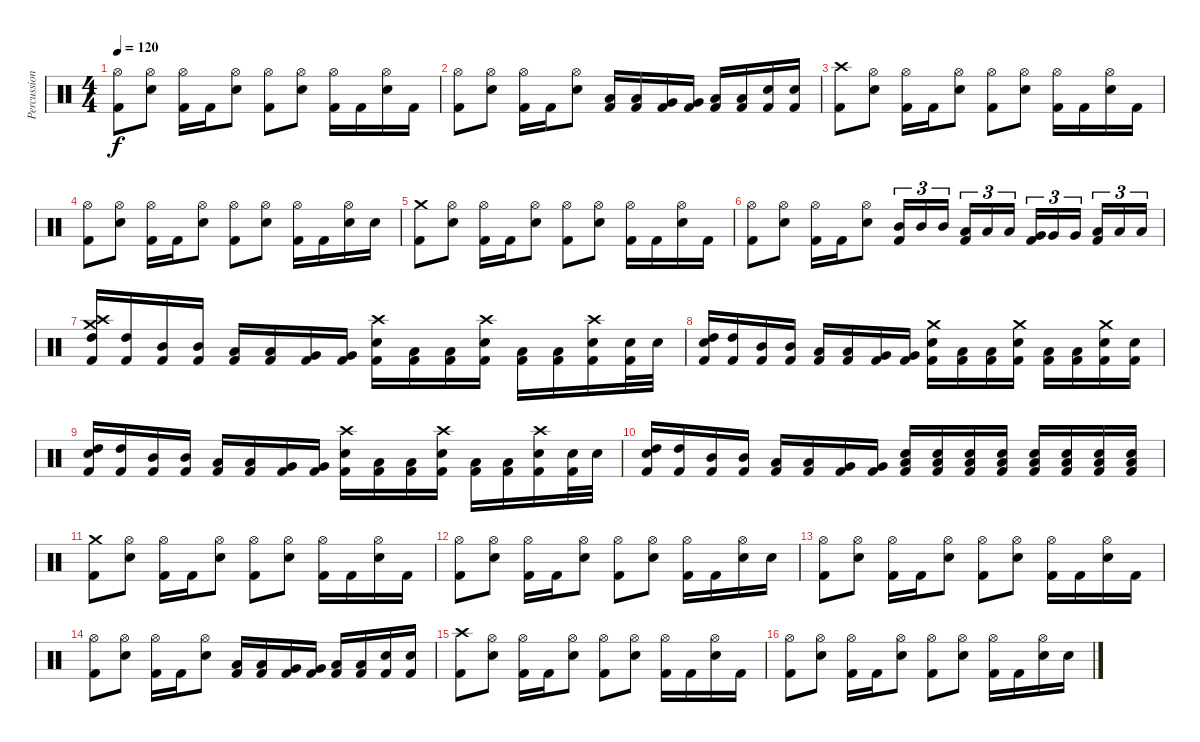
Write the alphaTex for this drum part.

\track ("Percussion" "Percussion") {instrument percussion}
\staff {score}
\articulation defaults
\ts (4 4)
\tempo 120
\clef neutral
\ks c
("Hi-Hat (open)" "Kick (hit) 2").8{dy f} ("Hi-Hat (open)" "Electric Snare (hit)").8 ("Hi-Hat (open)" "Kick (hit) 2").16 "Kick (hit) 2".16 ("Hi-Hat (open)" "Electric Snare (hit)").8 ("Hi-Hat (open)" "Kick (hit) 2").8 ("Hi-Hat (open)" "Electric Snare (hit)").8 ("Hi-Hat (open)" "Kick (hit) 2").16 "Kick (hit) 2".16 ("Hi-Hat (open)" "Electric Snare (hit)").16 "Kick (hit) 2".16 |
("Hi-Hat (open)" "Kick (hit) 2").8 ("Hi-Hat (open)" "Electric Snare (hit)").8 ("Hi-Hat (open)" "Kick (hit) 2").16 "Kick (hit) 2".16 ("Hi-Hat (open)" "Electric Snare (hit)").8 ("Low Tom (hit)" "Kick (hit) 2").16 ("Low Tom (hit)" "Kick (hit) 2").16 ("Very Low Tom (hit)" "Kick (hit) 2").16 ("Very Low Tom (hit)" "Kick (hit) 2").16 ("Low Floor Tom (hit)" "Kick (hit) 2").16 ("Low Floor Tom (hit)" "Kick (hit) 2").16 ("Electric Snare (hit)" "Kick (hit) 2").16 ("Electric Snare (hit)" "Kick (hit) 2").16 |
("Crash high (hit)" "Kick (hit) 2").8 ("Hi-Hat (open)" "Electric Snare (hit)").8 ("Hi-Hat (open)" "Kick (hit) 2").16 "Kick (hit) 2".16 ("Hi-Hat (open)" "Electric Snare (hit)").8 ("Hi-Hat (open)" "Kick (hit) 2").8 ("Hi-Hat (open)" "Electric Snare (hit)").8 ("Hi-Hat (open)" "Kick (hit) 2").16 "Kick (hit) 2".16 ("Hi-Hat (open)" "Electric Snare (hit)").16 "Kick (hit) 2".16 |
("Hi-Hat (open)" "Kick (hit) 2").8 ("Hi-Hat (open)" "Electric Snare (hit)").8 ("Hi-Hat (open)" "Kick (hit) 2").16 "Kick (hit) 2".16 ("Hi-Hat (open)" "Electric Snare (hit)").8 ("Hi-Hat (open)" "Kick (hit) 2").8 ("Hi-Hat (open)" "Electric Snare (hit)").8 ("Hi-Hat (open)" "Kick (hit) 2").16 "Kick (hit) 2".16 ("Hi-Hat (open)" "Electric Snare (hit)").16 "Electric Snare (hit)".16 |
("Crash medium (hit)" "Kick (hit) 2").8 ("Hi-Hat (open)" "Electric Snare (hit)").8 ("Hi-Hat (open)" "Kick (hit) 2").16 "Kick (hit) 2".16 ("Hi-Hat (open)" "Electric Snare (hit)").8 ("Hi-Hat (open)" "Kick (hit) 2").8 ("Hi-Hat (open)" "Electric Snare (hit)").8 ("Hi-Hat (open)" "Kick (hit) 2").16 "Kick (hit) 2".16 ("Hi-Hat (open)" "Electric Snare (hit)").16 "Kick (hit) 2".16 |
("Hi-Hat (open)" "Kick (hit) 2").8 ("Hi-Hat (open)" "Electric Snare (hit)").8 ("Hi-Hat (open)" "Kick (hit) 2").16 "Kick (hit) 2".16 ("Hi-Hat (open)" "Electric Snare (hit)").8 ("Mid Tom (hit)" "Kick (hit) 2").16{tu (3 2)} "Mid Tom (hit)".16{tu (3 2)} "Mid Tom (hit)".16{tu (3 2) beam splitsecondary} ("Low Tom (hit)" "Kick (hit) 2").16{tu (3 2)} "Low Tom (hit)".16{tu (3 2)} "Low Tom (hit)".16{tu (3 2)} ("Very Low Tom (hit)" "Kick (hit) 2").16{tu (3 2)} "Very Low Tom (hit)".16{tu (3 2)} "Very Low Tom (hit)".16{tu (3 2) beam splitsecondary} ("Low Floor Tom (hit)" "Kick (hit) 2").16{tu (3 2)} "Low Floor Tom (hit)".16{tu (3 2)} "Low Floor Tom (hit)".16{tu (3 2)} |
("Crash medium (hit)" "Crash high (hit)" "High Tom (hit)" "Kick (hit) 2").16 ("High Tom (hit)" "Kick (hit) 2").16 ("Mid Tom (hit)" "Kick (hit) 2").16 ("Mid Tom (hit)" "Kick (hit) 2").16 ("Low Tom (hit)" "Kick (hit) 2").16 ("Low Tom (hit)" "Kick (hit) 2").16 ("Very Low Tom (hit)" "Kick (hit) 2").16 ("Very Low Tom (hit)" "Kick (hit) 2").16 ("Crash high (hit)" "Electric Snare (hit)" "Kick (hit) 2").16 ("Low Floor Tom (hit)" "Kick (hit) 2").16 ("Low Floor Tom (hit)" "Kick (hit) 2").16 ("Crash high (hit)" "Electric Snare (hit)" "Kick (hit) 2").16 ("Low Floor Tom (hit)" "Kick (hit) 2").16 ("Low Floor Tom (hit)" "Kick (hit) 2").16 ("Crash high (hit)" "Electric Snare (hit)" "Kick (hit) 2").16 ("Electric Snare (hit)" "Kick (hit) 2").32 "Electric Snare (hit)".32 |
("Electric Snare (hit)" "High Tom (hit)" "Kick (hit) 2").16 ("High Tom (hit)" "Kick (hit) 2").16 ("Mid Tom (hit)" "Kick (hit) 2").16 ("Mid Tom (hit)" "Kick (hit) 2").16 ("Low Tom (hit)" "Kick (hit) 2").16 ("Low Tom (hit)" "Kick (hit) 2").16 ("Very Low Tom (hit)" "Kick (hit) 2").16 ("Very Low Tom (hit)" "Kick (hit) 2").16 ("Crash medium (hit)" "Electric Snare (hit)" "Kick (hit) 2").16 ("Low Floor Tom (hit)" "Kick (hit) 2").16 ("Low Floor Tom (hit)" "Kick (hit) 2").16 ("Crash medium (hit)" "Electric Snare (hit)" "Kick (hit) 2").16 ("Low Floor Tom (hit)" "Kick (hit) 2").16 ("Low Floor Tom (hit)" "Kick (hit) 2").16 ("Crash medium (hit)" "Electric Snare (hit)" "Kick (hit) 2").16 ("Electric Snare (hit)" "Kick (hit) 2").16 |
("Electric Snare (hit)" "High Tom (hit)" "Kick (hit) 2").16 ("High Tom (hit)" "Kick (hit) 2").16 ("Mid Tom (hit)" "Kick (hit) 2").16 ("Mid Tom (hit)" "Kick (hit) 2").16 ("Low Tom (hit)" "Kick (hit) 2").16 ("Low Tom (hit)" "Kick (hit) 2").16 ("Very Low Tom (hit)" "Kick (hit) 2").16 ("Very Low Tom (hit)" "Kick (hit) 2").16 ("Crash high (hit)" "Electric Snare (hit)" "Kick (hit) 2").16 ("Low Floor Tom (hit)" "Kick (hit) 2").16 ("Low Floor Tom (hit)" "Kick (hit) 2").16 ("Crash high (hit)" "Electric Snare (hit)" "Kick (hit) 2").16 ("Low Floor Tom (hit)" "Kick (hit) 2").16 ("Low Floor Tom (hit)" "Kick (hit) 2").16 ("Crash high (hit)" "Electric Snare (hit)" "Kick (hit) 2").16 ("Electric Snare (hit)" "Kick (hit) 2").32 "Electric Snare (hit)".32 |
("Electric Snare (hit)" "High Tom (hit)" "Kick (hit) 2").16 ("High Tom (hit)" "Kick (hit) 2").16 ("Mid Tom (hit)" "Kick (hit) 2").16 ("Mid Tom (hit)" "Kick (hit) 2").16 ("Low Tom (hit)" "Kick (hit) 2").16 ("Low Tom (hit)" "Kick (hit) 2").16 ("Very Low Tom (hit)" "Kick (hit) 2").16 ("Very Low Tom (hit)" "Kick (hit) 2").16 ("Low Floor Tom (hit)" "Electric Snare (hit)" "Kick (hit) 2").16 ("Low Floor Tom (hit)" "Electric Snare (hit)" "Kick (hit) 2").16 ("Low Floor Tom (hit)" "Electric Snare (hit)" "Kick (hit) 2").16 ("Low Floor Tom (hit)" "Electric Snare (hit)" "Kick (hit) 2").16 ("Low Floor Tom (hit)" "Electric Snare (hit)" "Kick (hit) 2").16 ("Low Floor Tom (hit)" "Electric Snare (hit)" "Kick (hit) 2").16 ("Low Floor Tom (hit)" "Electric Snare (hit)" "Kick (hit) 2").16 ("Low Floor Tom (hit)" "Electric Snare (hit)" "Kick (hit) 2").16 |
("Crash medium (hit)" "Kick (hit) 2").8 ("Hi-Hat (open)" "Electric Snare (hit)").8 ("Hi-Hat (open)" "Kick (hit) 2").16 "Kick (hit) 2".16 ("Hi-Hat (open)" "Electric Snare (hit)").8 ("Hi-Hat (open)" "Kick (hit) 2").8 ("Hi-Hat (open)" "Electric Snare (hit)").8 ("Hi-Hat (open)" "Kick (hit) 2").16 "Kick (hit) 2".16 ("Hi-Hat (open)" "Electric Snare (hit)").16 "Kick (hit) 2".16 |
("Hi-Hat (open)" "Kick (hit) 2").8 ("Hi-Hat (open)" "Electric Snare (hit)").8 ("Hi-Hat (open)" "Kick (hit) 2").16 "Kick (hit) 2".16 ("Hi-Hat (open)" "Electric Snare (hit)").8 ("Hi-Hat (open)" "Kick (hit) 2").8 ("Hi-Hat (open)" "Electric Snare (hit)").8 ("Hi-Hat (open)" "Kick (hit) 2").16 "Kick (hit) 2".16 ("Hi-Hat (open)" "Electric Snare (hit)").16 "Electric Snare (hit)".16 |
("Hi-Hat (open)" "Kick (hit) 2").8 ("Hi-Hat (open)" "Electric Snare (hit)").8 ("Hi-Hat (open)" "Kick (hit) 2").16 "Kick (hit) 2".16 ("Hi-Hat (open)" "Electric Snare (hit)").8 ("Hi-Hat (open)" "Kick (hit) 2").8 ("Hi-Hat (open)" "Electric Snare (hit)").8 ("Hi-Hat (open)" "Kick (hit) 2").16 "Kick (hit) 2".16 ("Hi-Hat (open)" "Electric Snare (hit)").16 "Kick (hit) 2".16 |
("Hi-Hat (open)" "Kick (hit) 2").8 ("Hi-Hat (open)" "Electric Snare (hit)").8 ("Hi-Hat (open)" "Kick (hit) 2").16 "Kick (hit) 2".16 ("Hi-Hat (open)" "Electric Snare (hit)").8 ("Low Tom (hit)" "Kick (hit) 2").16 ("Low Tom (hit)" "Kick (hit) 2").16 ("Very Low Tom (hit)" "Kick (hit) 2").16 ("Very Low Tom (hit)" "Kick (hit) 2").16 ("Low Floor Tom (hit)" "Kick (hit) 2").16 ("Low Floor Tom (hit)" "Kick (hit) 2").16 ("Electric Snare (hit)" "Kick (hit) 2").16 ("Electric Snare (hit)" "Kick (hit) 2").16 |
("Crash high (hit)" "Kick (hit) 2").8 ("Hi-Hat (open)" "Electric Snare (hit)").8 ("Hi-Hat (open)" "Kick (hit) 2").16 "Kick (hit) 2".16 ("Hi-Hat (open)" "Electric Snare (hit)").8 ("Hi-Hat (open)" "Kick (hit) 2").8 ("Hi-Hat (open)" "Electric Snare (hit)").8 ("Hi-Hat (open)" "Kick (hit) 2").16 "Kick (hit) 2".16 ("Hi-Hat (open)" "Electric Snare (hit)").16 "Kick (hit) 2".16 |
("Hi-Hat (open)" "Kick (hit) 2").8 ("Hi-Hat (open)" "Electric Snare (hit)").8 ("Hi-Hat (open)" "Kick (hit) 2").16 "Kick (hit) 2".16 ("Hi-Hat (open)" "Electric Snare (hit)").8 ("Hi-Hat (open)" "Kick (hit) 2").8 ("Hi-Hat (open)" "Electric Snare (hit)").8 ("Hi-Hat (open)" "Kick (hit) 2").16 "Kick (hit) 2".16 ("Hi-Hat (open)" "Electric Snare (hit)").16 "Electric Snare (hit)".16
